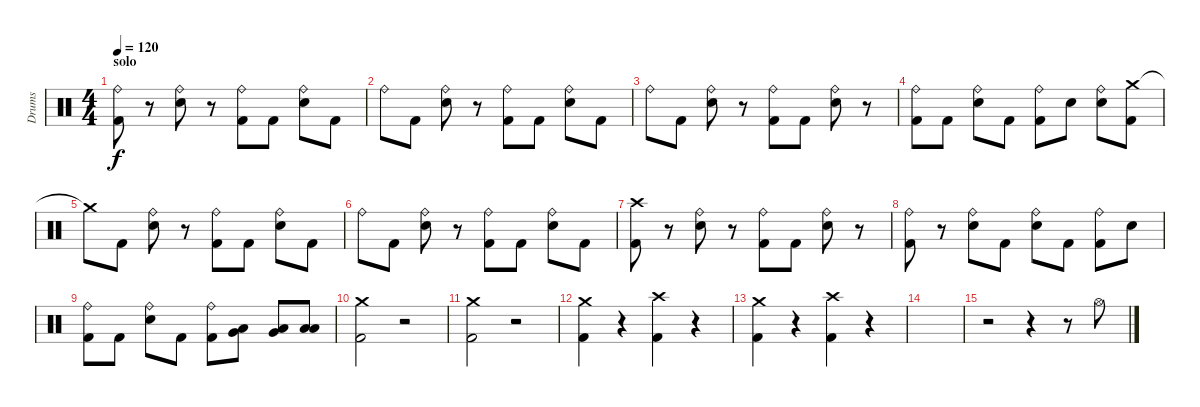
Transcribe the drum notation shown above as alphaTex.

\track ("Drums" "Drums") {instrument percussion}
\staff {score}
\articulation defaults
\ts (4 4)
\section ("" "solo")
\tempo 120
\clef neutral
\ks c
("Ride (bell)" "Kick (hit) 2").8{dy f} r.8 ("Ride (bell)" "Electric Snare (hit)").8 r.8 ("Ride (bell)" "Kick (hit) 2").8 "Kick (hit) 2".8 ("Ride (bell)" "Electric Snare (hit)").8 "Kick (hit) 2".8 |
"Ride (bell)".8 "Kick (hit) 2".8 ("Ride (bell)" "Electric Snare (hit)").8 r.8 ("Ride (bell)" "Kick (hit) 2").8 "Kick (hit) 2".8 ("Ride (bell)" "Electric Snare (hit)").8 "Kick (hit) 2".8 |
"Ride (bell)".8 "Kick (hit) 2".8 ("Ride (bell)" "Electric Snare (hit)").8 r.8 ("Ride (bell)" "Kick (hit) 2").8 "Kick (hit) 2".8 ("Ride (bell)" "Electric Snare (hit)").8 r.8 |
("Ride (bell)" "Kick (hit) 2").8 "Kick (hit) 2".8 ("Ride (bell)" "Electric Snare (hit)").8 "Kick (hit) 2".8 ("Ride (bell)" "Kick (hit) 2").8 "Electric Snare (hit)".8 ("Ride (bell)" "Electric Snare (hit)").8 ("Crash medium (hit)" "Kick (hit) 2").8 |
"Crash medium (hit)"{t}.8 "Kick (hit) 2".8 ("Ride (bell)" "Electric Snare (hit)").8 r.8 ("Ride (bell)" "Kick (hit) 2").8 "Kick (hit) 2".8 ("Ride (bell)" "Electric Snare (hit)").8 "Kick (hit) 2".8 |
"Ride (bell)".8 "Kick (hit) 2".8 ("Ride (bell)" "Electric Snare (hit)").8 r.8 ("Ride (bell)" "Kick (hit) 2").8 "Kick (hit) 2".8 ("Ride (bell)" "Electric Snare (hit)").8 "Kick (hit) 2".8 |
("Crash high (hit)" "Kick (hit) 2").8 r.8 ("Ride (bell)" "Electric Snare (hit)").8 r.8 ("Ride (bell)" "Kick (hit) 2").8 "Kick (hit) 2".8 ("Ride (bell)" "Electric Snare (hit)").8 r.8 |
("Ride (bell)" "Kick (hit) 2").8 r.8 ("Ride (bell)" "Electric Snare (hit)").8 "Kick (hit) 2".8 ("Ride (bell)" "Electric Snare (hit)").8 "Kick (hit) 2".8 ("Ride (bell)" "Kick (hit) 2").8 "Electric Snare (hit)".8 |
("Ride (bell)" "Kick (hit) 2").8 "Kick (hit) 2".8 ("Ride (bell)" "Electric Snare (hit)").8 "Kick (hit) 2".8 ("Ride (bell)" "Kick (hit) 2").8 ("Very Low Tom (hit)" "Low Tom (hit)").8 ("Low Tom (hit)" "Very Low Tom (hit)").8 ("Low Tom (hit)" "Low Floor Tom (hit)").8 |
("Crash medium (hit)" "Kick (hit) 2").2 r.2 |
("Crash medium (hit)" "Kick (hit) 2").2 r.2 |
("Crash medium (hit)" "Kick (hit) 2").4 r.4 ("Crash high (hit)" "Kick (hit) 2").4 r.4 |
("Crash medium (hit)" "Kick (hit) 2").4 r.4 ("Crash high (hit)" "Kick (hit) 2").4 r.4 |
|
r.2 r.4 r.8 "Hi-Hat (open)".8
